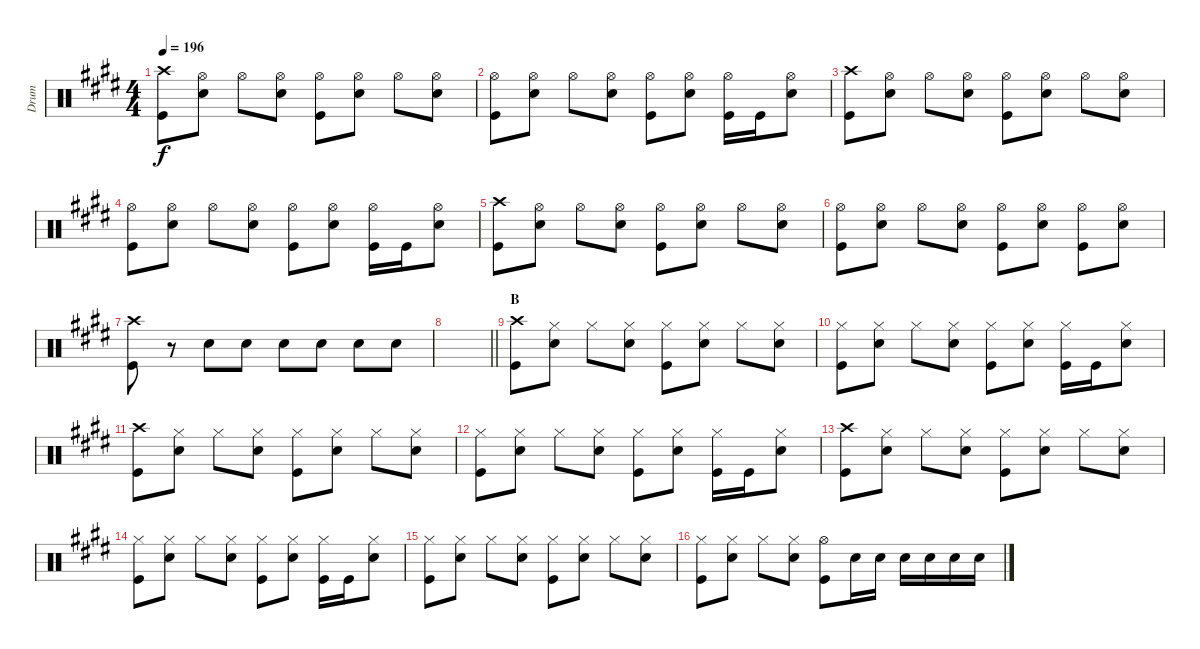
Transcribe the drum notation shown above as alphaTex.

\track ("Drum" "Drum") {instrument percussion}
\staff {score}
\articulation defaults
\ts (4 4)
\tempo 196
\clef neutral
\ks e
("Crash high (hit)" "Kick (hit)").8{dy f} ("Hi-Hat (open)" "Snare (hit) 2").8 "Hi-Hat (open)".8 ("Hi-Hat (open)" "Snare (hit) 2").8 ("Hi-Hat (open)" "Kick (hit)").8 ("Hi-Hat (open)" "Snare (hit) 2").8 "Hi-Hat (open)".8 ("Hi-Hat (open)" "Snare (hit) 2").8 |
("Hi-Hat (open)" "Kick (hit)").8 ("Hi-Hat (open)" "Snare (hit) 2").8 "Hi-Hat (open)".8 ("Hi-Hat (open)" "Snare (hit) 2").8 ("Hi-Hat (open)" "Kick (hit)").8 ("Hi-Hat (open)" "Snare (hit) 2").8 ("Hi-Hat (open)" "Kick (hit)").16 "Kick (hit)".16 ("Hi-Hat (open)" "Snare (hit) 2").8 |
("Crash high (hit)" "Kick (hit)").8 ("Hi-Hat (open)" "Snare (hit) 2").8 "Hi-Hat (open)".8 ("Hi-Hat (open)" "Snare (hit) 2").8 ("Hi-Hat (open)" "Kick (hit)").8 ("Hi-Hat (open)" "Snare (hit) 2").8 "Hi-Hat (open)".8 ("Hi-Hat (open)" "Snare (hit) 2").8 |
("Hi-Hat (open)" "Kick (hit)").8 ("Hi-Hat (open)" "Snare (hit) 2").8 "Hi-Hat (open)".8 ("Hi-Hat (open)" "Snare (hit) 2").8 ("Hi-Hat (open)" "Kick (hit)").8 ("Hi-Hat (open)" "Snare (hit) 2").8 ("Hi-Hat (open)" "Kick (hit)").16 "Kick (hit)".16 ("Hi-Hat (open)" "Snare (hit) 2").8 |
("Crash high (hit)" "Kick (hit)").8 ("Hi-Hat (open)" "Snare (hit) 2").8 "Hi-Hat (open)".8 ("Hi-Hat (open)" "Snare (hit) 2").8 ("Hi-Hat (open)" "Kick (hit)").8 ("Hi-Hat (open)" "Snare (hit) 2").8 "Hi-Hat (open)".8 ("Hi-Hat (open)" "Snare (hit) 2").8 |
("Hi-Hat (open)" "Kick (hit)").8 ("Hi-Hat (open)" "Snare (hit) 2").8 "Hi-Hat (open)".8 ("Hi-Hat (open)" "Snare (hit) 2").8 ("Hi-Hat (open)" "Kick (hit)").8 ("Hi-Hat (open)" "Snare (hit) 2").8 ("Hi-Hat (open)" "Kick (hit)").8 ("Hi-Hat (open)" "Snare (hit) 2").8 |
("Crash high (hit)" "Kick (hit)").8 r.8 "Snare (hit) 2".8 "Snare (hit) 2".8 "Snare (hit) 2".8 "Snare (hit) 2".8 "Snare (hit) 2".8 "Snare (hit) 2".8 |
\barLineRight lightlight
|
\section ("" "B")
("Crash high (hit)" "Kick (hit)").8 ("Hi-Hat (closed)" "Snare (hit) 2").8 "Hi-Hat (closed)".8 ("Hi-Hat (closed)" "Snare (hit) 2").8 ("Hi-Hat (closed)" "Kick (hit)").8 ("Hi-Hat (closed)" "Snare (hit) 2").8 "Hi-Hat (closed)".8 ("Hi-Hat (closed)" "Snare (hit) 2").8 |
("Hi-Hat (closed)" "Kick (hit)").8 ("Hi-Hat (closed)" "Snare (hit) 2").8 "Hi-Hat (closed)".8 ("Hi-Hat (closed)" "Snare (hit) 2").8 ("Hi-Hat (closed)" "Kick (hit)").8 ("Hi-Hat (closed)" "Snare (hit) 2").8 ("Hi-Hat (closed)" "Kick (hit)").16 "Kick (hit)".16 ("Hi-Hat (closed)" "Snare (hit) 2").8 |
("Crash high (hit)" "Kick (hit)").8 ("Hi-Hat (closed)" "Snare (hit) 2").8 "Hi-Hat (closed)".8 ("Hi-Hat (closed)" "Snare (hit) 2").8 ("Hi-Hat (closed)" "Kick (hit)").8 ("Hi-Hat (closed)" "Snare (hit) 2").8 "Hi-Hat (closed)".8 ("Hi-Hat (closed)" "Snare (hit) 2").8 |
("Hi-Hat (closed)" "Kick (hit)").8 ("Hi-Hat (closed)" "Snare (hit) 2").8 "Hi-Hat (closed)".8 ("Hi-Hat (closed)" "Snare (hit) 2").8 ("Hi-Hat (closed)" "Kick (hit)").8 ("Hi-Hat (closed)" "Snare (hit) 2").8 ("Hi-Hat (closed)" "Kick (hit)").16 "Kick (hit)".16 ("Hi-Hat (closed)" "Snare (hit) 2").8 |
("Crash high (hit)" "Kick (hit)").8 ("Hi-Hat (closed)" "Snare (hit) 2").8 "Hi-Hat (closed)".8 ("Hi-Hat (closed)" "Snare (hit) 2").8 ("Hi-Hat (closed)" "Kick (hit)").8 ("Hi-Hat (closed)" "Snare (hit) 2").8 "Hi-Hat (closed)".8 ("Hi-Hat (closed)" "Snare (hit) 2").8 |
("Hi-Hat (closed)" "Kick (hit)").8 ("Hi-Hat (closed)" "Snare (hit) 2").8 "Hi-Hat (closed)".8 ("Hi-Hat (closed)" "Snare (hit) 2").8 ("Hi-Hat (closed)" "Kick (hit)").8 ("Hi-Hat (closed)" "Snare (hit) 2").8 ("Hi-Hat (closed)" "Kick (hit)").16 "Kick (hit)".16 ("Hi-Hat (closed)" "Snare (hit) 2").8 |
("Hi-Hat (closed)" "Kick (hit)").8 ("Hi-Hat (closed)" "Snare (hit) 2").8 "Hi-Hat (closed)".8 ("Hi-Hat (closed)" "Snare (hit) 2").8 ("Hi-Hat (closed)" "Kick (hit)").8 ("Hi-Hat (closed)" "Snare (hit) 2").8 "Hi-Hat (closed)".8 ("Hi-Hat (closed)" "Snare (hit) 2").8 |
("Hi-Hat (closed)" "Kick (hit)").8 ("Hi-Hat (closed)" "Snare (hit) 2").8 "Hi-Hat (closed)".8 ("Hi-Hat (closed)" "Snare (hit) 2").8 ("Hi-Hat (open)" "Kick (hit)").8 "Snare (hit) 2".16 "Snare (hit) 2".16 "Snare (hit) 2".16 "Snare (hit) 2".16 "Snare (hit) 2".16 "Snare (hit) 2".16
